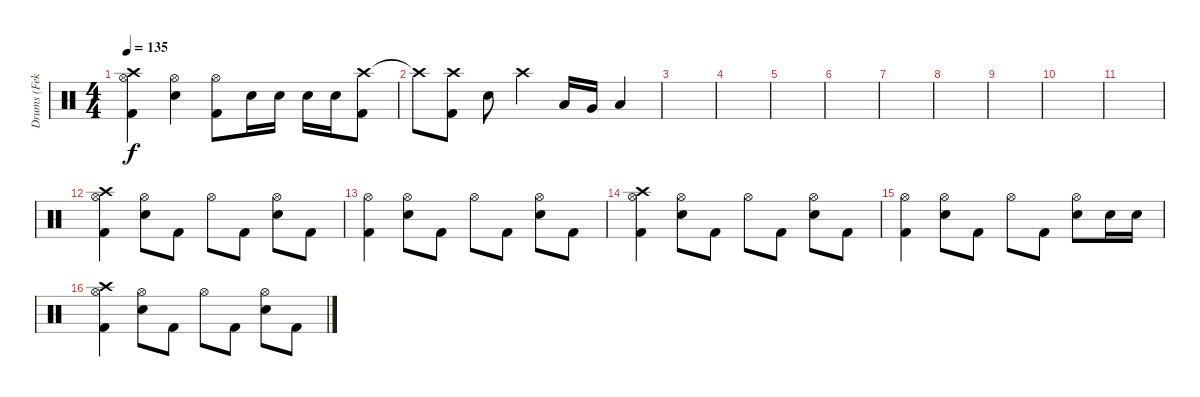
\track ("Drums (Feka)" "Drums (Fek") {instrument percussion}
\staff {score}
\articulation defaults
\ts (4 4)
\tempo 135
\clef neutral
\ks c
("Crash high (hit)" "Hi-Hat (open)" "Kick (hit) 2").4{dy f} ("Hi-Hat (open)" "Snare (hit) 2").4 ("Hi-Hat (open)" "Kick (hit) 2").8 "Snare (hit) 2".16 "Snare (hit) 2".16 "Snare (hit) 2".16 "Snare (hit) 2".16 ("Crash high (hit)" "Kick (hit) 2").8 |
"Crash high (hit)"{t}.8 ("Crash high (hit)" "Kick (hit) 2").8 "Snare (hit) 2".8 "Crash high (hit)".4 "Low Tom (hit)".16 "Very Low Tom (hit)".16 "Low Floor Tom (hit)".4 |
|
|
|
|
|
|
|
|
|
("Crash high (hit)" "Hi-Hat (open)" "Kick (hit) 2").4 ("Hi-Hat (open)" "Snare (hit) 2").8 "Kick (hit) 2".8 "Hi-Hat (open)".8 "Kick (hit) 2".8 ("Hi-Hat (open)" "Snare (hit) 2").8 "Kick (hit) 2".8 |
("Hi-Hat (open)" "Kick (hit) 2").4 ("Hi-Hat (open)" "Snare (hit) 2").8 "Kick (hit) 2".8 "Hi-Hat (open)".8 "Kick (hit) 2".8 ("Hi-Hat (open)" "Snare (hit) 2").8 "Kick (hit) 2".8 |
("Crash high (hit)" "Hi-Hat (open)" "Kick (hit) 2").4 ("Hi-Hat (open)" "Snare (hit) 2").8 "Kick (hit) 2".8 "Hi-Hat (open)".8 "Kick (hit) 2".8 ("Hi-Hat (open)" "Snare (hit) 2").8 "Kick (hit) 2".8 |
("Hi-Hat (open)" "Kick (hit) 2").4 ("Hi-Hat (open)" "Snare (hit) 2").8 "Kick (hit) 2".8 "Hi-Hat (open)".8 "Kick (hit) 2".8 ("Hi-Hat (open)" "Snare (hit) 2").8 "Snare (hit) 2".16 "Snare (hit) 2".16 |
("Crash high (hit)" "Hi-Hat (open)" "Kick (hit) 2").4 ("Hi-Hat (open)" "Snare (hit) 2").8 "Kick (hit) 2".8 "Hi-Hat (open)".8 "Kick (hit) 2".8 ("Hi-Hat (open)" "Snare (hit) 2").8 "Kick (hit) 2".8
